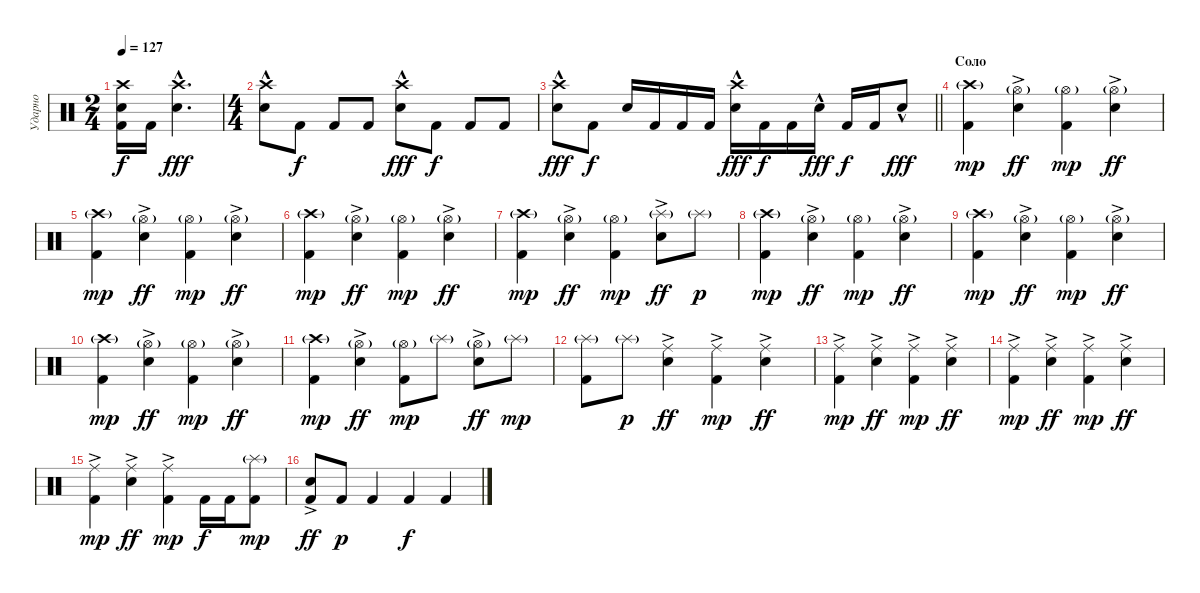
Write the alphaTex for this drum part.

\track ("Ударно" "Ударно") {instrument percussion}
\staff {score}
\articulation defaults
\ts (2 4)
\tempo 127
\clef neutral
\ks c
("Crash high (hit)"{t} "Electric Snare (hit)"{t} "Kick (hit) 2").16{dy f} "Kick (hit) 2".16 ("Crash high (hit)" "Electric Snare (hit)"{hac}).4{d dy fff} |
\ts (4 4)
("Crash high (hit)" "Electric Snare (hit)"{hac}).8 "Kick (hit) 2".8{dy f} "Kick (hit) 2".8 "Kick (hit) 2".8 ("Crash high (hit)" "Electric Snare (hit)"{hac}).8{dy fff} "Kick (hit) 2".8{dy f} "Kick (hit) 2".8 "Kick (hit) 2".8 |
\barLineRight lightlight
("Crash high (hit)" "Electric Snare (hit)"{hac}).8{dy fff} "Kick (hit) 2".8{dy f} "Electric Snare (hit)".16 "Kick (hit) 2".16 "Kick (hit) 2".16 "Kick (hit) 2".16 ("Crash high (hit)" "Electric Snare (hit)"{hac}).16{dy fff} "Kick (hit) 2".16{dy f} "Kick (hit) 2".16 "Electric Snare (hit)"{hac}.16{dy fff} "Kick (hit) 2".16{dy f} "Kick (hit) 2".16 "Electric Snare (hit)"{hac}.8{dy fff} |
\section ("" "Соло")
("Crash high (hit)"{g} "Kick (hit) 2").4{dy mp} ("Hi-Hat (open)"{g} "Electric Snare (hit)"{ac}).4{dy ff} ("Hi-Hat (open)"{g} "Kick (hit) 2").4{dy mp} ("Hi-Hat (open)"{g} "Electric Snare (hit)"{ac}).4{dy ff} |
("Crash high (hit)"{g} "Kick (hit) 2").4{dy mp} ("Hi-Hat (open)"{g} "Electric Snare (hit)"{ac}).4{dy ff} ("Hi-Hat (open)"{g} "Kick (hit) 2").4{dy mp} ("Hi-Hat (open)"{g} "Electric Snare (hit)"{ac}).4{dy ff} |
("Crash high (hit)"{g} "Kick (hit) 2").4{dy mp} ("Hi-Hat (open)"{g} "Electric Snare (hit)"{ac}).4{dy ff} ("Hi-Hat (open)"{g} "Kick (hit) 2").4{dy mp} ("Hi-Hat (open)"{g} "Electric Snare (hit)"{ac}).4{dy ff} |
("Crash high (hit)"{g} "Kick (hit) 2").4{dy mp} ("Hi-Hat (open)"{g} "Electric Snare (hit)"{ac}).4{dy ff} ("Hi-Hat (open)"{g} "Kick (hit) 2").4{dy mp} ("Splash (hit)"{g} "Electric Snare (hit)"{ac}).8{dy ff} "Splash (hit)"{g}.8{dy p} |
("Crash high (hit)"{g} "Kick (hit) 2").4{dy mp} ("Hi-Hat (open)"{g} "Electric Snare (hit)"{ac}).4{dy ff} ("Hi-Hat (open)"{g} "Kick (hit) 2").4{dy mp} ("Hi-Hat (open)"{g} "Electric Snare (hit)"{ac}).4{dy ff} |
("Crash high (hit)"{g} "Kick (hit) 2").4{dy mp} ("Hi-Hat (open)"{g} "Electric Snare (hit)"{ac}).4{dy ff} ("Hi-Hat (open)"{g} "Kick (hit) 2").4{dy mp} ("Hi-Hat (open)"{g} "Electric Snare (hit)"{ac}).4{dy ff} |
("Crash high (hit)"{g} "Kick (hit) 2").4{dy mp} ("Hi-Hat (open)"{g} "Electric Snare (hit)"{ac}).4{dy ff} ("Hi-Hat (open)"{g} "Kick (hit) 2").4{dy mp} ("Hi-Hat (open)"{g} "Electric Snare (hit)"{ac}).4{dy ff} |
("Crash high (hit)"{g} "Kick (hit) 2").4{dy mp} ("Hi-Hat (open)"{g} "Electric Snare (hit)"{ac}).4{dy ff} ("Hi-Hat (open)"{g} "Kick (hit) 2").8{dy mp} "Splash (hit)"{g}.8 ("Hi-Hat (open)"{g} "Electric Snare (hit)"{ac}).8{dy ff} "Splash (hit)"{g}.8{dy mp} |
("Splash (hit)"{g} "Kick (hit) 2").8 "Splash (hit)"{g}.8{dy p} ("Ride (middle)"{ac} "Electric Snare (hit)"{ac}).4{dy ff} ("Ride (middle)"{ac} "Kick (hit) 2").4{dy mp} ("Ride (middle)"{ac} "Electric Snare (hit)"{ac}).4{dy ff} |
("Ride (middle)"{ac} "Kick (hit) 2").4{dy mp} ("Ride (middle)"{ac} "Electric Snare (hit)"{ac}).4{dy ff} ("Ride (middle)"{ac} "Kick (hit) 2").4{dy mp} ("Ride (middle)"{ac} "Electric Snare (hit)"{ac}).4{dy ff} |
("Ride (middle)"{ac} "Kick (hit) 2").4{dy mp} ("Ride (middle)"{ac} "Electric Snare (hit)"{ac}).4{dy ff} ("Ride (middle)"{ac} "Kick (hit) 2").4{dy mp} ("Ride (middle)"{ac} "Electric Snare (hit)"{ac}).4{dy ff} |
("Ride (middle)"{ac} "Kick (hit) 2").4{dy mp} ("Ride (middle)"{ac} "Electric Snare (hit)"{ac}).4{dy ff} ("Ride (middle)"{ac} "Kick (hit) 2").4{dy mp} "Kick (hit) 2".16{dy f} "Kick (hit) 2".16 ("Splash (hit)"{g} "Kick (hit) 2").8{dy mp} |
("Electric Snare (hit)"{ac} "Kick (hit) 2").8{dy ff} "Kick (hit) 2".8{dy p} "Kick (hit) 2".4 "Kick (hit) 2".4{dy f} "Kick (hit) 2".4
